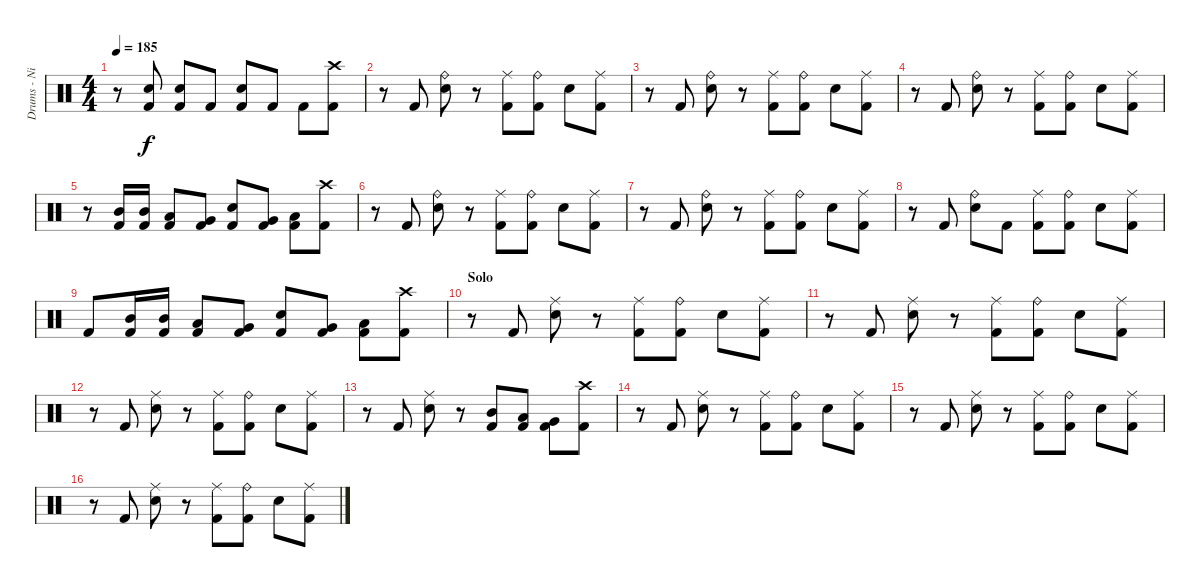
\track ("Drums - Nicko" "Drums - Ni") {instrument percussion}
\staff {score}
\articulation defaults
\ts (4 4)
\tempo 185
\clef neutral
\ks c
r.8{dy f} ("Snare (hit) 2" "Kick (hit) 2").8 ("Snare (hit) 2" "Kick (hit) 2").8 "Kick (hit) 2".8 ("Snare (hit) 2" "Kick (hit) 2").8 "Kick (hit) 2".8 "Kick (hit) 2".8 ("Crash high (hit)" "Kick (hit) 2").8 |
\section ("" "")
r.8 "Kick (hit) 2".8 ("Ride (bell)" "Snare (hit) 2").8 r.8 ("Ride (middle)" "Kick (hit) 2").8 ("Ride (bell)" "Kick (hit) 2").8 "Snare (hit) 2".8 ("Ride (middle)" "Kick (hit) 2").8 |
r.8 "Kick (hit) 2".8 ("Ride (bell)" "Snare (hit) 2").8 r.8 ("Ride (middle)" "Kick (hit) 2").8 ("Ride (bell)" "Kick (hit) 2").8 "Snare (hit) 2".8 ("Ride (middle)" "Kick (hit) 2").8 |
r.8 "Kick (hit) 2".8 ("Ride (bell)" "Snare (hit) 2").8 r.8 ("Ride (middle)" "Kick (hit) 2").8 ("Ride (bell)" "Kick (hit) 2").8 "Snare (hit) 2".8 ("Ride (middle)" "Kick (hit) 2").8 |
r.8 ("Mid Tom (hit)" "Kick (hit) 2").16 ("Mid Tom (hit)" "Kick (hit) 2").16 ("Low Tom (hit)" "Kick (hit) 2").8 ("Very Low Tom (hit)" "Kick (hit) 2").8 ("Snare (hit) 2" "Kick (hit) 2").8 ("Very Low Tom (hit)" "Kick (hit) 2").8 ("Low Floor Tom (hit)" "Kick (hit) 2").8 ("Crash high (hit)" "Kick (hit) 2").8 |
r.8 "Kick (hit) 2".8 ("Ride (bell)" "Snare (hit) 2").8 r.8 ("Ride (middle)" "Kick (hit) 2").8 ("Ride (bell)" "Kick (hit) 2").8 "Snare (hit) 2".8 ("Ride (middle)" "Kick (hit) 2").8 |
r.8 "Kick (hit) 2".8 ("Ride (bell)" "Snare (hit) 2").8 r.8 ("Ride (middle)" "Kick (hit) 2").8 ("Ride (bell)" "Kick (hit) 2").8 "Snare (hit) 2".8 ("Ride (middle)" "Kick (hit) 2").8 |
r.8 "Kick (hit) 2".8 ("Ride (bell)" "Snare (hit) 2").8 "Kick (hit) 2".8 ("Ride (middle)" "Kick (hit) 2").8 ("Ride (bell)" "Kick (hit) 2").8 "Snare (hit) 2".8 ("Ride (middle)" "Kick (hit) 2").8 |
"Kick (hit) 2".8 ("Mid Tom (hit)" "Kick (hit) 2").16 ("Mid Tom (hit)" "Kick (hit) 2").16 ("Low Tom (hit)" "Kick (hit) 2").8 ("Very Low Tom (hit)" "Kick (hit) 2").8 ("Snare (hit) 2" "Kick (hit) 2").8 ("Very Low Tom (hit)" "Kick (hit) 2").8 ("Low Floor Tom (hit)" "Kick (hit) 2").8 ("Crash high (hit)" "Kick (hit) 2").8 |
\section ("" "Solo")
r.8 "Kick (hit) 2".8 ("Ride (middle)" "Snare (hit) 2").8 r.8 ("Ride (middle)" "Kick (hit) 2").8 ("Ride (bell)" "Kick (hit) 2").8 "Snare (hit) 2".8 ("Ride (middle)" "Kick (hit) 2").8 |
r.8 "Kick (hit) 2".8 ("Ride (middle)" "Snare (hit) 2").8 r.8 ("Ride (middle)" "Kick (hit) 2").8 ("Ride (bell)" "Kick (hit) 2").8 "Snare (hit) 2".8 ("Ride (middle)" "Kick (hit) 2").8 |
r.8 "Kick (hit) 2".8 ("Ride (middle)" "Snare (hit) 2").8 r.8 ("Ride (middle)" "Kick (hit) 2").8 ("Ride (bell)" "Kick (hit) 2").8 "Snare (hit) 2".8 ("Ride (middle)" "Kick (hit) 2").8 |
r.8 "Kick (hit) 2".8 ("Ride (middle)" "Snare (hit) 2").8 r.8 ("Mid Tom (hit)" "Kick (hit) 2").8 ("Low Tom (hit)" "Kick (hit) 2").8 ("Very Low Tom (hit)" "Kick (hit) 2").8 ("Crash high (hit)" "Kick (hit) 2").8 |
r.8 "Kick (hit) 2".8 ("Ride (middle)" "Snare (hit) 2").8 r.8 ("Ride (middle)" "Kick (hit) 2").8 ("Ride (bell)" "Kick (hit) 2").8 "Snare (hit) 2".8 ("Ride (middle)" "Kick (hit) 2").8 |
r.8 "Kick (hit) 2".8 ("Ride (middle)" "Snare (hit) 2").8 r.8 ("Ride (middle)" "Kick (hit) 2").8 ("Ride (bell)" "Kick (hit) 2").8 "Snare (hit) 2".8 ("Ride (middle)" "Kick (hit) 2").8 |
r.8 "Kick (hit) 2".8 ("Ride (middle)" "Snare (hit) 2").8 r.8 ("Ride (middle)" "Kick (hit) 2").8 ("Ride (bell)" "Kick (hit) 2").8 "Snare (hit) 2".8 ("Ride (middle)" "Kick (hit) 2").8
